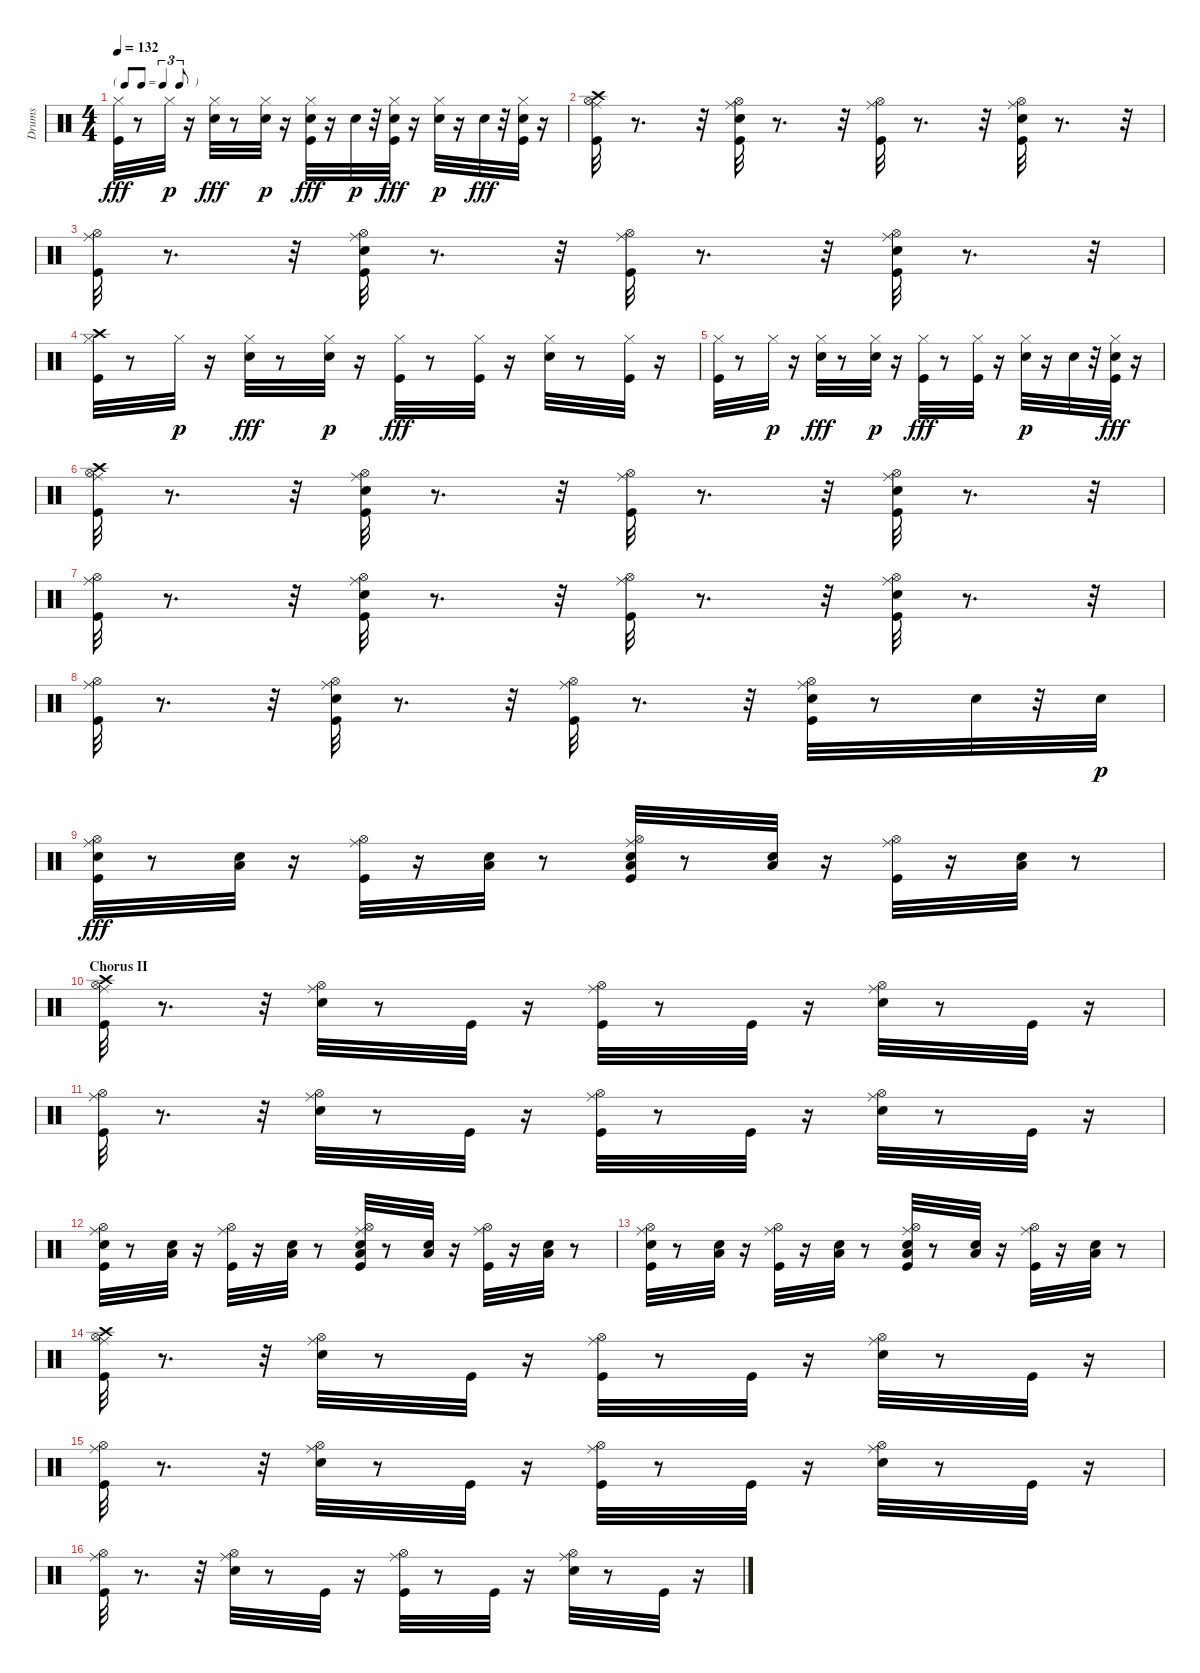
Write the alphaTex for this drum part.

\track ("Drums" "Drums") {instrument percussion}
\staff {score}
\articulation defaults
\ts (4 4)
\tf triplet8th
\tempo 132
\clef neutral
\ks c
("Hi-Hat (closed)" "Kick (hit)").32{dy fff} r.8 "Hi-Hat (closed)".32{dy p} r.16 ("Hi-Hat (closed)" "Snare (hit) 2").32{dy fff} r.8 ("Hi-Hat (closed)" "Snare (hit) 2").32{dy p} r.16 ("Hi-Hat (closed)" "Snare (hit) 2" "Kick (hit)").32{dy fff} r.16 "Snare (hit) 2".32{dy p} r.32 ("Hi-Hat (closed)" "Snare (hit) 2" "Kick (hit)").32{dy fff} r.16 ("Hi-Hat (closed)" "Snare (hit) 2").32{dy p} r.16 "Snare (hit) 2".32{dy fff} r.32 ("Hi-Hat (closed)" "Snare (hit) 2" "Kick (hit)").32 r.16 |
("Kick (hit)" "Crash high (hit)" "Ride (middle)" "Hi-Hat (open)").32 r.8{d} r.32 ("Snare (hit) 2" "Kick (hit)" "Ride (middle)" "Hi-Hat (open)").32 r.8{d} r.32 ("Kick (hit)" "Ride (middle)" "Hi-Hat (open)").32 r.8{d} r.32 ("Snare (hit) 2" "Kick (hit)" "Ride (middle)" "Hi-Hat (open)").32 r.8{d} r.32 |
("Kick (hit)" "Ride (middle)" "Hi-Hat (open)").32 r.8{d} r.32 ("Snare (hit) 2" "Kick (hit)" "Ride (middle)" "Hi-Hat (open)").32 r.8{d} r.32 ("Kick (hit)" "Ride (middle)" "Hi-Hat (open)").32 r.8{d} r.32 ("Snare (hit) 2" "Kick (hit)" "Ride (middle)" "Hi-Hat (open)").32 r.8{d} r.32 |
("Hi-Hat (closed)" "Kick (hit)" "Crash high (hit)").32 r.8 "Hi-Hat (closed)".32{dy p} r.16 ("Hi-Hat (closed)" "Snare (hit) 2").32{dy fff} r.8 ("Hi-Hat (closed)" "Snare (hit) 2").32{dy p} r.16 ("Hi-Hat (closed)" "Kick (hit)").32{dy fff} r.8 ("Hi-Hat (closed)" "Kick (hit)").32 r.16 ("Hi-Hat (closed)" "Snare (hit) 2").32 r.8 ("Hi-Hat (closed)" "Kick (hit)").32 r.16 |
("Hi-Hat (closed)" "Kick (hit)").32 r.8 "Hi-Hat (closed)".32{dy p} r.16 ("Hi-Hat (closed)" "Snare (hit) 2").32{dy fff} r.8 ("Hi-Hat (closed)" "Snare (hit) 2").32{dy p} r.16 ("Hi-Hat (closed)" "Kick (hit)").32{dy fff} r.8 ("Hi-Hat (closed)" "Kick (hit)").32 r.16 ("Hi-Hat (closed)" "Snare (hit) 2").32{dy p} r.16 "Snare (hit) 2".32 r.32 ("Hi-Hat (closed)" "Snare (hit) 2" "Kick (hit)").32{dy fff} r.16 |
("Kick (hit)" "Crash high (hit)" "Ride (middle)" "Hi-Hat (open)").32 r.8{d} r.32 ("Snare (hit) 2" "Kick (hit)" "Ride (middle)" "Hi-Hat (open)").32 r.8{d} r.32 ("Kick (hit)" "Ride (middle)" "Hi-Hat (open)").32 r.8{d} r.32 ("Snare (hit) 2" "Kick (hit)" "Ride (middle)" "Hi-Hat (open)").32 r.8{d} r.32 |
("Kick (hit)" "Ride (middle)" "Hi-Hat (open)").32 r.8{d} r.32 ("Snare (hit) 2" "Kick (hit)" "Ride (middle)" "Hi-Hat (open)").32 r.8{d} r.32 ("Kick (hit)" "Ride (middle)" "Hi-Hat (open)").32 r.8{d} r.32 ("Snare (hit) 2" "Kick (hit)" "Ride (middle)" "Hi-Hat (open)").32 r.8{d} r.32 |
("Kick (hit)" "Ride (middle)" "Hi-Hat (open)").32 r.8{d} r.32 ("Snare (hit) 2" "Kick (hit)" "Ride (middle)" "Hi-Hat (open)").32 r.8{d} r.32 ("Kick (hit)" "Ride (middle)" "Hi-Hat (open)").32 r.8{d} r.32 ("Snare (hit) 2" "Kick (hit)" "Ride (middle)" "Hi-Hat (open)").32 r.8 "Snare (hit) 2".32 r.32 "Snare (hit) 2".32{dy p} |
("Snare (hit) 2" "Kick (hit)" "Ride (middle)" "Hi-Hat (open)").32{dy fff} r.8 ("Snare (hit) 2" "Low Tom (hit)").32 r.16 ("Kick (hit)" "Ride (middle)" "Hi-Hat (open)").32 r.16 ("Snare (hit) 2" "Low Tom (hit)").32 r.8 ("Snare (hit) 2" "Low Tom (hit)" "Kick (hit)" "Ride (middle)" "Hi-Hat (open)").32 r.8 ("Snare (hit) 2" "Low Tom (hit)").32 r.16 ("Kick (hit)" "Ride (middle)" "Hi-Hat (open)").32 r.16 ("Snare (hit) 2" "Low Tom (hit)").32 r.8 |
\section ("" "Chorus II")
("Kick (hit)" "Crash high (hit)" "Ride (middle)" "Hi-Hat (open)").32 r.8{d} r.32 ("Snare (hit) 2" "Ride (middle)" "Hi-Hat (open)").32 r.8 "Kick (hit)".32 r.16 ("Kick (hit)" "Ride (middle)" "Hi-Hat (open)").32 r.8 "Kick (hit)".32 r.16 ("Snare (hit) 2" "Ride (middle)" "Hi-Hat (open)").32 r.8 "Kick (hit)".32 r.16 |
("Kick (hit)" "Ride (middle)" "Hi-Hat (open)").32 r.8{d} r.32 ("Snare (hit) 2" "Ride (middle)" "Hi-Hat (open)").32 r.8 "Kick (hit)".32 r.16 ("Kick (hit)" "Ride (middle)" "Hi-Hat (open)").32 r.8 "Kick (hit)".32 r.16 ("Snare (hit) 2" "Ride (middle)" "Hi-Hat (open)").32 r.8 "Kick (hit)".32 r.16 |
("Snare (hit) 2" "Kick (hit)" "Ride (middle)" "Hi-Hat (open)").32 r.8 ("Snare (hit) 2" "Low Tom (hit)").32 r.16 ("Kick (hit)" "Ride (middle)" "Hi-Hat (open)").32 r.16 ("Snare (hit) 2" "Low Tom (hit)").32 r.8 ("Snare (hit) 2" "Low Tom (hit)" "Kick (hit)" "Ride (middle)" "Hi-Hat (open)").32 r.8 ("Snare (hit) 2" "Low Tom (hit)").32 r.16 ("Kick (hit)" "Ride (middle)" "Hi-Hat (open)").32 r.16 ("Snare (hit) 2" "Low Tom (hit)").32 r.8 |
("Snare (hit) 2" "Kick (hit)" "Ride (middle)" "Hi-Hat (open)").32 r.8 ("Snare (hit) 2" "Low Tom (hit)").32 r.16 ("Kick (hit)" "Ride (middle)" "Hi-Hat (open)").32 r.16 ("Snare (hit) 2" "Low Tom (hit)").32 r.8 ("Snare (hit) 2" "Low Tom (hit)" "Kick (hit)" "Ride (middle)" "Hi-Hat (open)").32 r.8 ("Snare (hit) 2" "Low Tom (hit)").32 r.16 ("Kick (hit)" "Ride (middle)" "Hi-Hat (open)").32 r.16 ("Snare (hit) 2" "Low Tom (hit)").32 r.8 |
("Kick (hit)" "Crash high (hit)" "Ride (middle)" "Hi-Hat (open)").32 r.8{d} r.32 ("Snare (hit) 2" "Ride (middle)" "Hi-Hat (open)").32 r.8 "Kick (hit)".32 r.16 ("Kick (hit)" "Ride (middle)" "Hi-Hat (open)").32 r.8 "Kick (hit)".32 r.16 ("Snare (hit) 2" "Ride (middle)" "Hi-Hat (open)").32 r.8 "Kick (hit)".32 r.16 |
("Kick (hit)" "Ride (middle)" "Hi-Hat (open)").32 r.8{d} r.32 ("Snare (hit) 2" "Ride (middle)" "Hi-Hat (open)").32 r.8 "Kick (hit)".32 r.16 ("Kick (hit)" "Ride (middle)" "Hi-Hat (open)").32 r.8 "Kick (hit)".32 r.16 ("Snare (hit) 2" "Ride (middle)" "Hi-Hat (open)").32 r.8 "Kick (hit)".32 r.16 |
("Kick (hit)" "Ride (middle)" "Hi-Hat (open)").32 r.8{d} r.32 ("Snare (hit) 2" "Ride (middle)" "Hi-Hat (open)").32 r.8 "Kick (hit)".32 r.16 ("Kick (hit)" "Ride (middle)" "Hi-Hat (open)").32 r.8 "Kick (hit)".32 r.16 ("Snare (hit) 2" "Ride (middle)" "Hi-Hat (open)").32 r.8 "Kick (hit)".32 r.16
